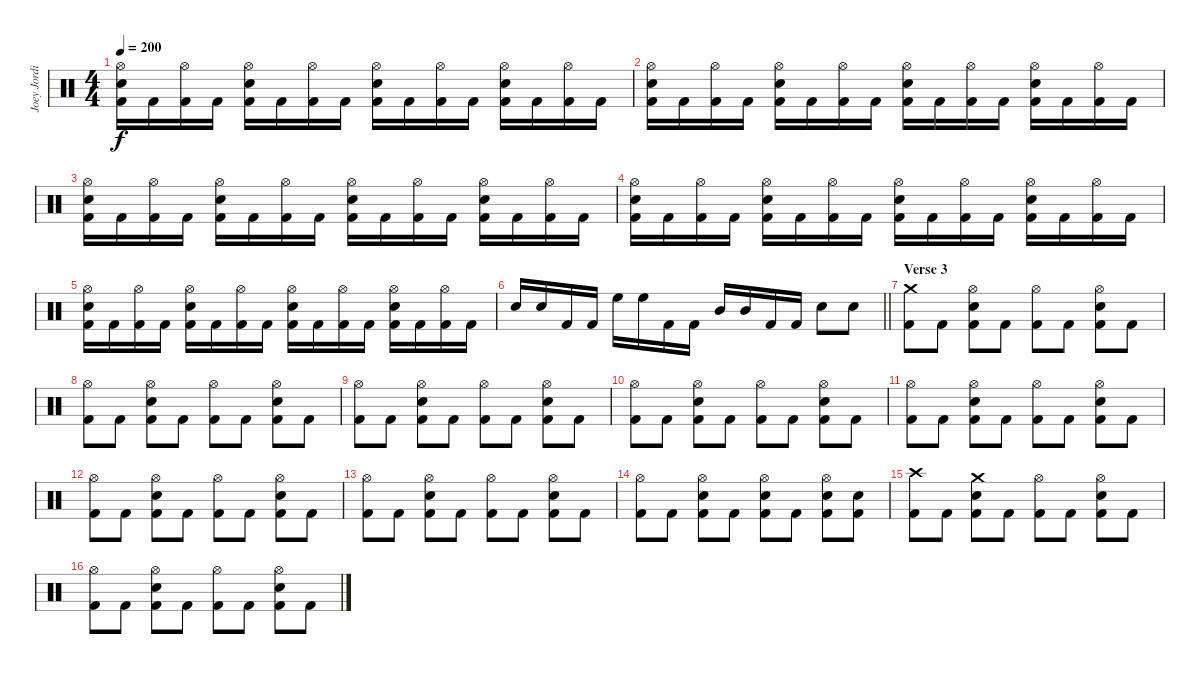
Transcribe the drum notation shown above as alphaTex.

\track ("Joey Jordison" "Joey Jordi") {instrument percussion}
\staff {score}
\articulation defaults
\ts (4 4)
\tempo 200
\clef neutral
\ks c
("Hi-Hat (open)" "Electric Snare (hit)" "Kick (hit) 2").16{dy f} "Kick (hit) 2".16 ("Hi-Hat (open)" "Kick (hit) 2").16 "Kick (hit) 2".16 ("Hi-Hat (open)" "Electric Snare (hit)" "Kick (hit) 2").16 "Kick (hit) 2".16 ("Hi-Hat (open)" "Kick (hit) 2").16 "Kick (hit) 2".16 ("Hi-Hat (open)" "Electric Snare (hit)" "Kick (hit) 2").16 "Kick (hit) 2".16 ("Hi-Hat (open)" "Kick (hit) 2").16 "Kick (hit) 2".16 ("Hi-Hat (open)" "Electric Snare (hit)" "Kick (hit) 2").16 "Kick (hit) 2".16 ("Hi-Hat (open)" "Kick (hit) 2").16 "Kick (hit) 2".16 |
("Hi-Hat (open)" "Electric Snare (hit)" "Kick (hit) 2").16 "Kick (hit) 2".16 ("Hi-Hat (open)" "Kick (hit) 2").16 "Kick (hit) 2".16 ("Hi-Hat (open)" "Electric Snare (hit)" "Kick (hit) 2").16 "Kick (hit) 2".16 ("Hi-Hat (open)" "Kick (hit) 2").16 "Kick (hit) 2".16 ("Hi-Hat (open)" "Electric Snare (hit)" "Kick (hit) 2").16 "Kick (hit) 2".16 ("Hi-Hat (open)" "Kick (hit) 2").16 "Kick (hit) 2".16 ("Hi-Hat (open)" "Electric Snare (hit)" "Kick (hit) 2").16 "Kick (hit) 2".16 ("Hi-Hat (open)" "Kick (hit) 2").16 "Kick (hit) 2".16 |
("Hi-Hat (open)" "Electric Snare (hit)" "Kick (hit) 2").16 "Kick (hit) 2".16 ("Hi-Hat (open)" "Kick (hit) 2").16 "Kick (hit) 2".16 ("Hi-Hat (open)" "Electric Snare (hit)" "Kick (hit) 2").16 "Kick (hit) 2".16 ("Hi-Hat (open)" "Kick (hit) 2").16 "Kick (hit) 2".16 ("Hi-Hat (open)" "Electric Snare (hit)" "Kick (hit) 2").16 "Kick (hit) 2".16 ("Hi-Hat (open)" "Kick (hit) 2").16 "Kick (hit) 2".16 ("Hi-Hat (open)" "Electric Snare (hit)" "Kick (hit) 2").16 "Kick (hit) 2".16 ("Hi-Hat (open)" "Kick (hit) 2").16 "Kick (hit) 2".16 |
("Hi-Hat (open)" "Electric Snare (hit)" "Kick (hit) 2").16 "Kick (hit) 2".16 ("Hi-Hat (open)" "Kick (hit) 2").16 "Kick (hit) 2".16 ("Hi-Hat (open)" "Electric Snare (hit)" "Kick (hit) 2").16 "Kick (hit) 2".16 ("Hi-Hat (open)" "Kick (hit) 2").16 "Kick (hit) 2".16 ("Hi-Hat (open)" "Electric Snare (hit)" "Kick (hit) 2").16 "Kick (hit) 2".16 ("Hi-Hat (open)" "Kick (hit) 2").16 "Kick (hit) 2".16 ("Hi-Hat (open)" "Electric Snare (hit)" "Kick (hit) 2").16 "Kick (hit) 2".16 ("Hi-Hat (open)" "Kick (hit) 2").16 "Kick (hit) 2".16 |
("Hi-Hat (open)" "Electric Snare (hit)" "Kick (hit) 2").16 "Kick (hit) 2".16 ("Hi-Hat (open)" "Kick (hit) 2").16 "Kick (hit) 2".16 ("Hi-Hat (open)" "Electric Snare (hit)" "Kick (hit) 2").16 "Kick (hit) 2".16 ("Hi-Hat (open)" "Kick (hit) 2").16 "Kick (hit) 2".16 ("Hi-Hat (open)" "Electric Snare (hit)" "Kick (hit) 2").16 "Kick (hit) 2".16 ("Hi-Hat (open)" "Kick (hit) 2").16 "Kick (hit) 2".16 ("Hi-Hat (open)" "Electric Snare (hit)" "Kick (hit) 2").16 "Kick (hit) 2".16 ("Hi-Hat (open)" "Kick (hit) 2").16 "Kick (hit) 2".16 |
\barLineRight lightlight "Electric Snare (hit)".16 "Electric Snare (hit)".16 "Kick (hit) 2".16 "Kick (hit) 2".16 "High Floor Tom (hit)".16 "High Floor Tom (hit)".16 "Kick (hit) 2".16 "Kick (hit) 2".16 "Mid Tom (hit)".16 "Mid Tom (hit)".16 "Kick (hit) 2".16 "Kick (hit) 2".16 "Electric Snare (hit)".8 "Electric Snare (hit)".8
|
\section ("" "Verse 3")
("Crash medium (hit)" "Kick (hit) 2").8 "Kick (hit) 2".8 ("Hi-Hat (open)" "Electric Snare (hit)" "Kick (hit) 2").8 "Kick (hit) 2".8 ("Hi-Hat (open)" "Kick (hit) 2").8 "Kick (hit) 2".8 ("Hi-Hat (open)" "Electric Snare (hit)" "Kick (hit) 2").8 "Kick (hit) 2".8 |
("Hi-Hat (open)" "Kick (hit) 2").8 "Kick (hit) 2".8 ("Hi-Hat (open)" "Electric Snare (hit)" "Kick (hit) 2").8 "Kick (hit) 2".8 ("Hi-Hat (open)" "Kick (hit) 2").8 "Kick (hit) 2".8 ("Hi-Hat (open)" "Electric Snare (hit)" "Kick (hit) 2").8 "Kick (hit) 2".8 |
("Hi-Hat (open)" "Kick (hit) 2").8 "Kick (hit) 2".8 ("Hi-Hat (open)" "Electric Snare (hit)" "Kick (hit) 2").8 "Kick (hit) 2".8 ("Hi-Hat (open)" "Kick (hit) 2").8 "Kick (hit) 2".8 ("Hi-Hat (open)" "Electric Snare (hit)" "Kick (hit) 2").8 "Kick (hit) 2".8 |
("Hi-Hat (open)" "Kick (hit) 2").8 "Kick (hit) 2".8 ("Hi-Hat (open)" "Electric Snare (hit)" "Kick (hit) 2").8 "Kick (hit) 2".8 ("Hi-Hat (open)" "Kick (hit) 2").8 "Kick (hit) 2".8 ("Hi-Hat (open)" "Electric Snare (hit)" "Kick (hit) 2").8 "Kick (hit) 2".8 |
("Hi-Hat (open)" "Kick (hit) 2").8 "Kick (hit) 2".8 ("Hi-Hat (open)" "Electric Snare (hit)" "Kick (hit) 2").8 "Kick (hit) 2".8 ("Hi-Hat (open)" "Kick (hit) 2").8 "Kick (hit) 2".8 ("Hi-Hat (open)" "Electric Snare (hit)" "Kick (hit) 2").8 "Kick (hit) 2".8 |
("Hi-Hat (open)" "Kick (hit) 2").8 "Kick (hit) 2".8 ("Hi-Hat (open)" "Electric Snare (hit)" "Kick (hit) 2").8 "Kick (hit) 2".8 ("Hi-Hat (open)" "Kick (hit) 2").8 "Kick (hit) 2".8 ("Hi-Hat (open)" "Electric Snare (hit)" "Kick (hit) 2").8 "Kick (hit) 2".8 |
("Hi-Hat (open)" "Kick (hit) 2").8 "Kick (hit) 2".8 ("Hi-Hat (open)" "Electric Snare (hit)" "Kick (hit) 2").8 "Kick (hit) 2".8 ("Hi-Hat (open)" "Kick (hit) 2").8 "Kick (hit) 2".8 ("Hi-Hat (open)" "Electric Snare (hit)" "Kick (hit) 2").8 "Kick (hit) 2".8 |
("Hi-Hat (open)" "Kick (hit) 2").8 "Kick (hit) 2".8 ("Hi-Hat (open)" "Electric Snare (hit)" "Kick (hit) 2").8 "Kick (hit) 2".8 ("Hi-Hat (open)" "Electric Snare (hit)" "Kick (hit) 2").8 "Kick (hit) 2".8 ("Hi-Hat (open)" "Electric Snare (hit)" "Kick (hit) 2").8 ("Electric Snare (hit)" "Kick (hit) 2").8 |
("Crash high (hit)" "Kick (hit) 2").8 "Kick (hit) 2".8 ("Crash medium (hit)" "Electric Snare (hit)" "Kick (hit) 2").8 "Kick (hit) 2".8 ("Hi-Hat (open)" "Kick (hit) 2").8 "Kick (hit) 2".8 ("Hi-Hat (open)" "Electric Snare (hit)" "Kick (hit) 2").8 "Kick (hit) 2".8 |
("Hi-Hat (open)" "Kick (hit) 2").8 "Kick (hit) 2".8 ("Hi-Hat (open)" "Electric Snare (hit)" "Kick (hit) 2").8 "Kick (hit) 2".8 ("Hi-Hat (open)" "Kick (hit) 2").8 "Kick (hit) 2".8 ("Hi-Hat (open)" "Electric Snare (hit)" "Kick (hit) 2").8 "Kick (hit) 2".8
